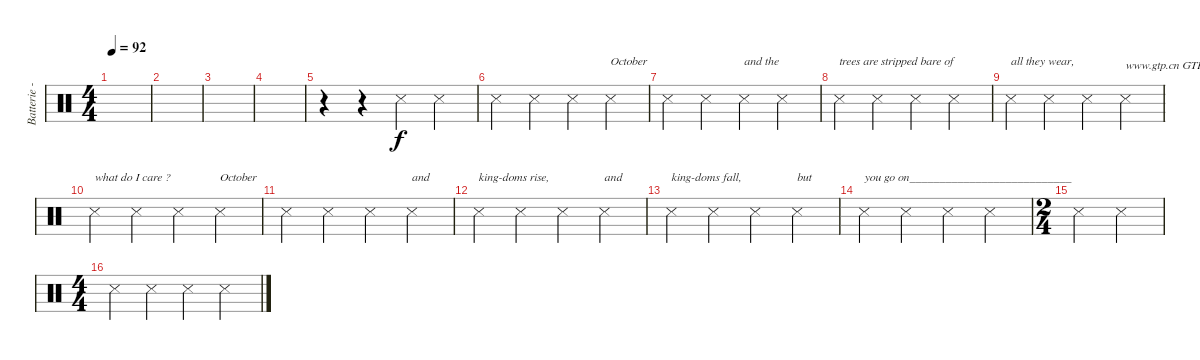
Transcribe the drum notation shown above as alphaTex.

\track ("Batterie - Larry Mullen Jr." "Batterie -") {instrument percussion}
\staff {score}
\articulation defaults
\ts (4 4)
\tempo 92
\clef neutral
\ks c
|
|
|
|
r.4 r.4 "Snare (side stick) 3".4 "Snare (side stick) 3".4 |
"Snare (side stick) 3".4 "Snare (side stick) 3".4 "Snare (side stick) 3".4 "Snare (side stick) 3".4{txt "October"} |
"Snare (side stick) 3".4 "Snare (side stick) 3".4 "Snare (side stick) 3".4{txt "and the"} "Snare (side stick) 3".4 |
"Snare (side stick) 3".4{txt "trees are stripped bare of"} "Snare (side stick) 3".4 "Snare (side stick) 3".4 "Snare (side stick) 3".4 |
"Snare (side stick) 3".4{txt "all they wear,"} "Snare (side stick) 3".4 "Snare (side stick) 3".4 "Snare (side stick) 3".4{txt "www.gtp.cn GTP中文网为您提供优秀的谱子"} |
"Snare (side stick) 3".4{txt "what do I care ?"} "Snare (side stick) 3".4 "Snare (side stick) 3".4 "Snare (side stick) 3".4{txt "October"} |
"Snare (side stick) 3".4 "Snare (side stick) 3".4 "Snare (side stick) 3".4 "Snare (side stick) 3".4{txt "and"} |
"Snare (side stick) 3".4{txt "king-doms rise,"} "Snare (side stick) 3".4 "Snare (side stick) 3".4 "Snare (side stick) 3".4{txt "and"} |
"Snare (side stick) 3".4{txt "king-doms fall,"} "Snare (side stick) 3".4 "Snare (side stick) 3".4 "Snare (side stick) 3".4{txt "but"} |
"Snare (side stick) 3".4{txt "you go on___________________________"} "Snare (side stick) 3".4 "Snare (side stick) 3".4 "Snare (side stick) 3".4 |
\ts (2 4)
"Snare (side stick) 3".4 "Snare (side stick) 3".4 |
\ts (4 4)
"Snare (side stick) 3".4 "Snare (side stick) 3".4 "Snare (side stick) 3".4 "Snare (side stick) 3".4
